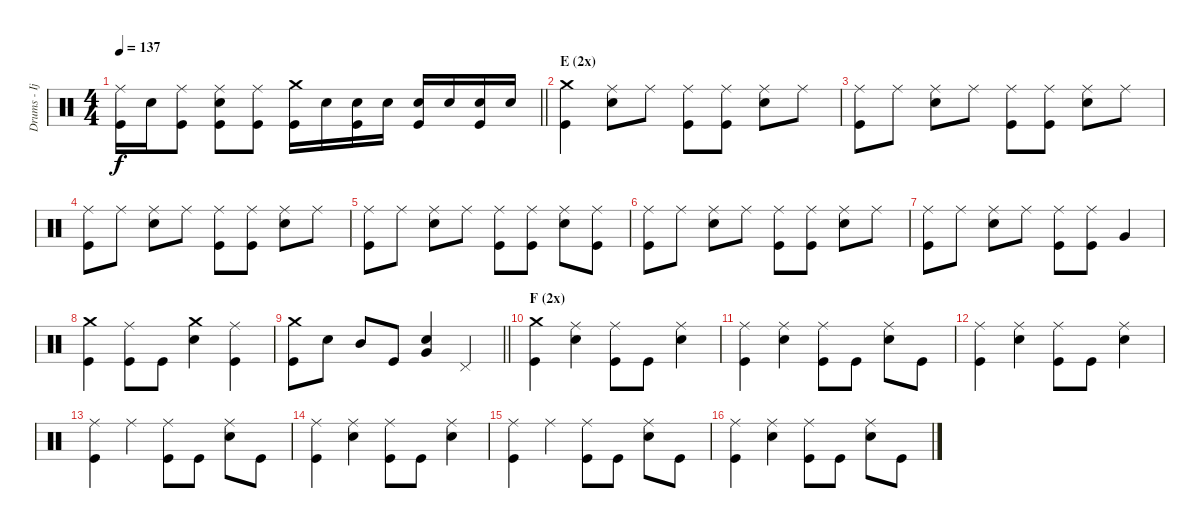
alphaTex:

\track ("Drums - Ijichi" "Drums - Ij") {instrument percussion}
\staff {score}
\articulation defaults
\ts (4 4)
\tempo 137
\clef neutral
\barLineRight lightlight
\ks c
("Ride (middle)" "Kick (hit)").16{dy f} "Electric Snare (hit)".16 ("Ride (middle)" "Kick (hit)").8 ("Ride (middle)" "Electric Snare (hit)" "Kick (hit)").8 ("Ride (middle)" "Kick (hit)").8 ("Crash medium (hit)" "Kick (hit)").16 "Electric Snare (hit)".16 ("Electric Snare (hit)" "Kick (hit)").16 "Electric Snare (hit)".16 ("Electric Snare (hit)" "Kick (hit)").16 "Electric Snare (hit)".16 ("Electric Snare (hit)" "Kick (hit)").16 "Electric Snare (hit)".16 |
\section ("" "E (2x)")
("Crash medium (hit)" "Kick (hit)").4 ("Ride (middle)" "Electric Snare (hit)").8 "Ride (middle)".8 ("Ride (middle)" "Kick (hit)").8 ("Ride (middle)" "Kick (hit)").8 ("Ride (middle)" "Electric Snare (hit)").8 "Ride (middle)".8 |
("Ride (middle)" "Kick (hit)").8 "Ride (middle)".8 ("Ride (middle)" "Electric Snare (hit)").8 "Ride (middle)".8 ("Ride (middle)" "Kick (hit)").8 ("Ride (middle)" "Kick (hit)").8 ("Ride (middle)" "Electric Snare (hit)").8 "Ride (middle)".8 |
("Ride (middle)" "Kick (hit)").8 "Ride (middle)".8 ("Ride (middle)" "Electric Snare (hit)").8 "Ride (middle)".8 ("Ride (middle)" "Kick (hit)").8 ("Ride (middle)" "Kick (hit)").8 ("Ride (middle)" "Electric Snare (hit)").8 "Ride (middle)".8 |
("Ride (middle)" "Kick (hit)").8 "Ride (middle)".8 ("Ride (middle)" "Electric Snare (hit)").8 "Ride (middle)".8 ("Ride (middle)" "Kick (hit)").8 ("Ride (middle)" "Kick (hit)").8 ("Ride (middle)" "Electric Snare (hit)").8 ("Ride (middle)" "Kick (hit)").8 |
("Ride (middle)" "Kick (hit)").8 "Ride (middle)".8 ("Ride (middle)" "Electric Snare (hit)").8 "Ride (middle)".8 ("Ride (middle)" "Kick (hit)").8 ("Ride (middle)" "Kick (hit)").8 ("Ride (middle)" "Electric Snare (hit)").8 "Ride (middle)".8 |
("Ride (middle)" "Kick (hit)").8 "Ride (middle)".8 ("Ride (middle)" "Electric Snare (hit)").8 "Ride (middle)".8 ("Ride (middle)" "Kick (hit)").8 ("Ride (middle)" "Kick (hit)").8 "Very Low Tom (hit)".4 |
("Crash medium (hit)" "Kick (hit)").4 ("Ride (middle)" "Kick (hit)").8 "Kick (hit)".8 ("Crash medium (hit)" "Electric Snare (hit)").4 ("Ride (middle)" "Kick (hit)").4 |
\barLineRight lightlight
("Crash medium (hit)" "Kick (hit)").8 "Electric Snare (hit)".8 "Mid Tom (hit)".8 "Kick (hit)".8 ("Electric Snare (hit)" "Very Low Tom (hit)").4 "Pedal Hi-Hat (hit)".4 |
\section ("" "F (2x)")
("Crash medium (hit)" "Kick (hit)").4 ("Ride (middle)" "Electric Snare (hit)").4 ("Ride (middle)" "Kick (hit)").8 "Kick (hit)".8 ("Ride (middle)" "Electric Snare (hit)").4 |
("Ride (middle)" "Kick (hit)").4 ("Ride (middle)" "Electric Snare (hit)").4 ("Ride (middle)" "Kick (hit)").8 "Kick (hit)".8 ("Ride (middle)" "Electric Snare (hit)").8 "Kick (hit)".8 |
("Ride (middle)" "Kick (hit)").4 ("Ride (middle)" "Electric Snare (hit)").4 ("Ride (middle)" "Kick (hit)").8 "Kick (hit)".8 ("Ride (middle)" "Electric Snare (hit)").4 |
("Ride (middle)" "Kick (hit)").4 "Ride (middle)".4 ("Ride (middle)" "Kick (hit)").8 "Kick (hit)".8 ("Ride (middle)" "Electric Snare (hit)").8 "Kick (hit)".8 |
("Ride (middle)" "Kick (hit)").4 ("Ride (middle)" "Electric Snare (hit)").4 ("Ride (middle)" "Kick (hit)").8 "Kick (hit)".8 ("Ride (middle)" "Electric Snare (hit)").4 |
("Ride (middle)" "Kick (hit)").4 "Ride (middle)".4 ("Ride (middle)" "Kick (hit)").8 "Kick (hit)".8 ("Ride (middle)" "Electric Snare (hit)").8 "Kick (hit)".8 |
("Ride (middle)" "Kick (hit)").4 ("Ride (middle)" "Electric Snare (hit)").4 ("Ride (middle)" "Kick (hit)").8 "Kick (hit)".8 ("Ride (middle)" "Electric Snare (hit)").8 "Kick (hit)".8
